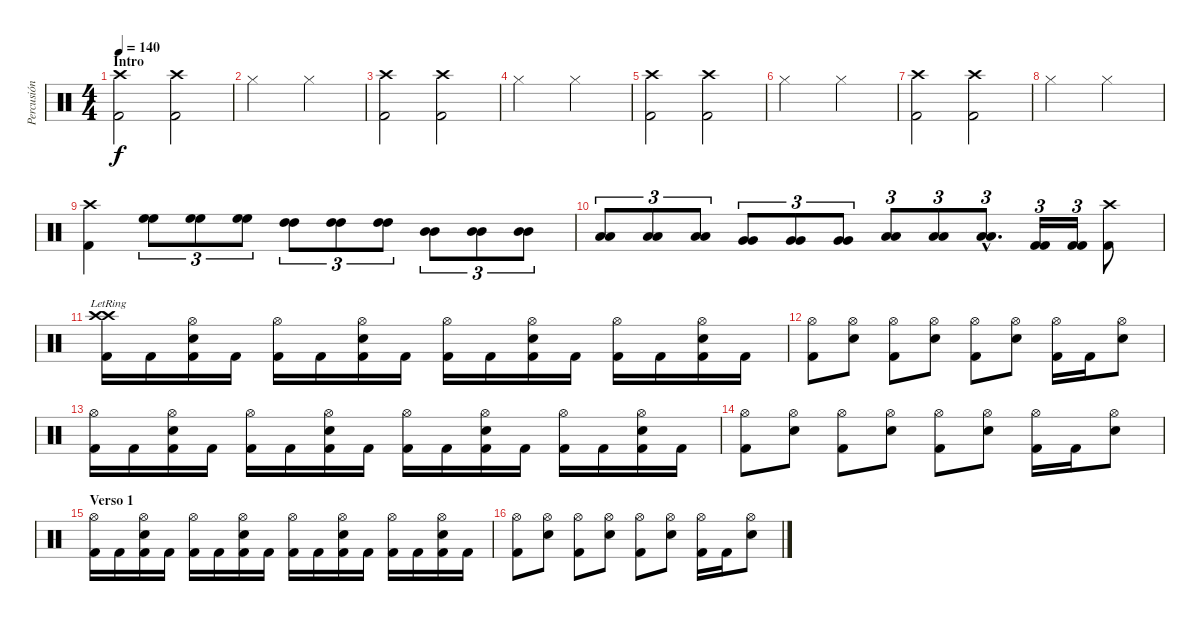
\track ("Percusión" "Percusión") {instrument percussion}
\staff {score}
\articulation defaults
\ts (4 4)
\section ("" "Intro")
\tempo 140
\clef neutral
\ks c
("Crash high (hit)" "Kick (hit) 2").2{dy f} ("Crash high (hit)" "Kick (hit) 2").2 |
"Hi-Hat (closed)".2 "Hi-Hat (closed)".2 |
("Crash high (hit)" "Kick (hit) 2").2 ("Crash high (hit)" "Kick (hit) 2").2 |
"Hi-Hat (closed)".2 "Hi-Hat (closed)".2 |
("Crash high (hit)" "Kick (hit) 2").2 ("Crash high (hit)" "Kick (hit) 2").2 |
"Hi-Hat (closed)".2 "Hi-Hat (closed)".2 |
("Crash high (hit)" "Kick (hit) 2").2 ("Crash high (hit)" "Kick (hit) 2").2 |
"Hi-Hat (closed)".2 "Hi-Hat (closed)".2 |
("Crash high (hit)" "Kick (hit) 2").4 ("High Floor Tom (hit)" "High Floor Tom (hit)").8{tu (3 2)} ("High Floor Tom (hit)" "High Floor Tom (hit)").8{tu (3 2)} ("High Floor Tom (hit)" "High Floor Tom (hit)").8{tu (3 2)} ("High Tom (hit)" "High Tom (hit)").8{tu (3 2)} ("High Tom (hit)" "High Tom (hit)").8{tu (3 2)} ("High Tom (hit)" "High Tom (hit)").8{tu (3 2)} ("Mid Tom (hit)" "Mid Tom (hit)").8{tu (3 2)} ("Mid Tom (hit)" "Mid Tom (hit)").8{tu (3 2)} ("Mid Tom (hit)" "Mid Tom (hit)").8{tu (3 2)} |
("Low Tom (hit)" "Low Tom (hit)").8{tu (3 2)} ("Low Tom (hit)" "Low Tom (hit)").8{tu (3 2)} ("Low Tom (hit)" "Low Tom (hit)").8{tu (3 2)} ("Very Low Tom (hit)" "Very Low Tom (hit)").8{tu (3 2)} ("Very Low Tom (hit)" "Very Low Tom (hit)").8{tu (3 2)} ("Very Low Tom (hit)" "Very Low Tom (hit)").8{tu (3 2)} ("Low Floor Tom (hit)" "Low Floor Tom (hit)").8{tu (3 2)} ("Low Floor Tom (hit)" "Low Floor Tom (hit)").8{tu (3 2)} ("Low Floor Tom (hit)"{hac} "Low Floor Tom (hit)"{hac}).8{d tu (3 2)} ("Kick (hit) 2" "Kick (hit) 2").16{tu (3 2)} ("Kick (hit) 2" "Kick (hit) 2").16{tu (3 2)} ("Crash high (hit)" "Kick (hit) 2").8 |
("Crash high (hit)"{lr} "Crash high (hit)"{lr} "Kick (hit) 2").16 "Kick (hit) 2".16 ("Hi-Hat (open)" "Snare (hit) 2" "Kick (hit) 2").16 "Kick (hit) 2".16 ("Hi-Hat (open)" "Kick (hit) 2").16 "Kick (hit) 2".16 ("Hi-Hat (open)" "Snare (hit) 2" "Kick (hit) 2").16 "Kick (hit) 2".16 ("Hi-Hat (open)" "Kick (hit) 2").16 "Kick (hit) 2".16 ("Hi-Hat (open)" "Snare (hit) 2" "Kick (hit) 2").16 "Kick (hit) 2".16 ("Hi-Hat (open)" "Kick (hit) 2").16 "Kick (hit) 2".16 ("Hi-Hat (open)" "Snare (hit) 2" "Kick (hit) 2").16 "Kick (hit) 2".16 |
("Hi-Hat (open)" "Kick (hit) 2").8 ("Hi-Hat (open)" "Snare (hit) 2").8 ("Hi-Hat (open)" "Kick (hit) 2").8 ("Hi-Hat (open)" "Snare (hit) 2").8 ("Hi-Hat (open)" "Kick (hit) 2").8 ("Hi-Hat (open)" "Snare (hit) 2").8 ("Hi-Hat (open)" "Kick (hit) 2").16 "Kick (hit) 2".16 ("Hi-Hat (open)" "Snare (hit) 2").8 |
("Hi-Hat (open)" "Kick (hit) 2").16 "Kick (hit) 2".16 ("Hi-Hat (open)" "Snare (hit) 2" "Kick (hit) 2").16 "Kick (hit) 2".16 ("Hi-Hat (open)" "Kick (hit) 2").16 "Kick (hit) 2".16 ("Hi-Hat (open)" "Snare (hit) 2" "Kick (hit) 2").16 "Kick (hit) 2".16 ("Hi-Hat (open)" "Kick (hit) 2").16 "Kick (hit) 2".16 ("Hi-Hat (open)" "Snare (hit) 2" "Kick (hit) 2").16 "Kick (hit) 2".16 ("Hi-Hat (open)" "Kick (hit) 2").16 "Kick (hit) 2".16 ("Hi-Hat (open)" "Snare (hit) 2" "Kick (hit) 2").16 "Kick (hit) 2".16 |
("Hi-Hat (open)" "Kick (hit) 2").8 ("Hi-Hat (open)" "Snare (hit) 2").8 ("Hi-Hat (open)" "Kick (hit) 2").8 ("Hi-Hat (open)" "Snare (hit) 2").8 ("Hi-Hat (open)" "Kick (hit) 2").8 ("Hi-Hat (open)" "Snare (hit) 2").8 ("Hi-Hat (open)" "Kick (hit) 2").16 "Kick (hit) 2".16 ("Hi-Hat (open)" "Snare (hit) 2").8 |
\section ("" "Verso 1")
("Hi-Hat (open)" "Kick (hit) 2").16 "Kick (hit) 2".16 ("Hi-Hat (open)" "Snare (hit) 2" "Kick (hit) 2").16 "Kick (hit) 2".16 ("Hi-Hat (open)" "Kick (hit) 2").16 "Kick (hit) 2".16 ("Hi-Hat (open)" "Snare (hit) 2" "Kick (hit) 2").16 "Kick (hit) 2".16 ("Hi-Hat (open)" "Kick (hit) 2").16 "Kick (hit) 2".16 ("Hi-Hat (open)" "Snare (hit) 2" "Kick (hit) 2").16 "Kick (hit) 2".16 ("Hi-Hat (open)" "Kick (hit) 2").16 "Kick (hit) 2".16 ("Hi-Hat (open)" "Snare (hit) 2" "Kick (hit) 2").16 "Kick (hit) 2".16 |
("Hi-Hat (open)" "Kick (hit) 2").8 ("Hi-Hat (open)" "Snare (hit) 2").8 ("Hi-Hat (open)" "Kick (hit) 2").8 ("Hi-Hat (open)" "Snare (hit) 2").8 ("Hi-Hat (open)" "Kick (hit) 2").8 ("Hi-Hat (open)" "Snare (hit) 2").8 ("Hi-Hat (open)" "Kick (hit) 2").16 "Kick (hit) 2".16 ("Hi-Hat (open)" "Snare (hit) 2").8
